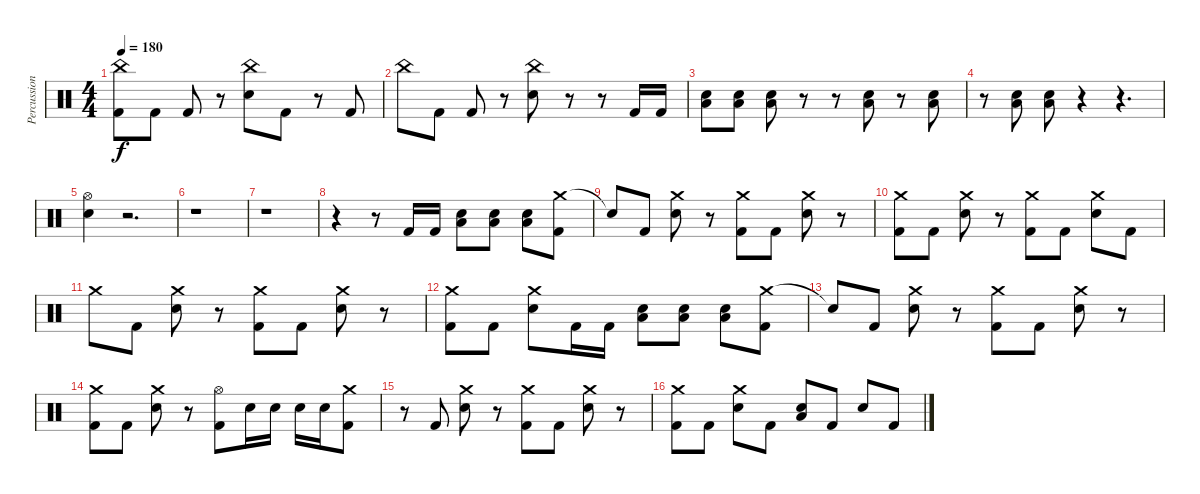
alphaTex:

\track ("Percussion" "Percussion") {instrument percussion}
\staff {score}
\articulation defaults
\ts (4 4)
\tempo 180
\clef neutral
\ks c
("China (hit)" "Kick (hit) 2").8{dy f} "Kick (hit) 2".8 "Kick (hit) 2".8 r.8 ("China (hit)" "Snare (hit) 2").8 "Kick (hit) 2".8 r.8 "Kick (hit) 2".8 |
"China (hit)".8 "Kick (hit) 2".8 "Kick (hit) 2".8 r.8 ("China (hit)" "Snare (hit) 2").8 r.8 r.8 "Kick (hit) 2".16 "Kick (hit) 2".16 |
("Low Floor Tom (hit)" "Snare (hit) 2").8 ("Low Floor Tom (hit)" "Snare (hit) 2").8 ("Low Floor Tom (hit)" "Snare (hit) 2").8 r.8 r.8 ("Low Floor Tom (hit)" "Snare (hit) 2").8 r.8 ("Low Floor Tom (hit)" "Snare (hit) 2").8 |
r.8 ("Low Floor Tom (hit)" "Snare (hit) 2").8 ("Low Floor Tom (hit)" "Snare (hit) 2").8 r.4 r.4{d} |
("Hi-Hat (open)" "Snare (hit) 2").4 r.2{d} |
r.1 |
r.1 |
r.4 r.8 "Kick (hit) 2".16 "Kick (hit) 2".16 ("Low Floor Tom (hit)" "Snare (hit) 2").8 ("Low Floor Tom (hit)" "Snare (hit) 2").8 ("Low Floor Tom (hit)" "Snare (hit) 2").8 ("Crash medium (hit)" "Kick (hit) 2").8 |
"Snare (hit)"{t}.8 "Kick (hit) 2".8 ("Crash medium (hit)" "Snare (hit) 2").8 r.8 ("Crash medium (hit)" "Kick (hit) 2").8 "Kick (hit) 2".8 ("Crash medium (hit)" "Snare (hit) 2").8 r.8 |
("Crash medium (hit)" "Kick (hit) 2").8 "Kick (hit) 2".8 ("Crash medium (hit)" "Snare (hit) 2").8 r.8 ("Crash medium (hit)" "Kick (hit) 2").8 "Kick (hit) 2".8 ("Crash medium (hit)" "Snare (hit) 2").8 "Kick (hit) 2".8 |
"Crash medium (hit)".8 "Kick (hit) 2".8 ("Crash medium (hit)" "Snare (hit) 2").8 r.8 ("Crash medium (hit)" "Kick (hit) 2").8 "Kick (hit) 2".8 ("Crash medium (hit)" "Snare (hit) 2").8 r.8 |
("Crash medium (hit)" "Kick (hit) 2").8 "Kick (hit) 2".8 ("Crash medium (hit)" "Snare (hit) 2").8 "Kick (hit) 2".16 "Kick (hit) 2".16 ("Low Floor Tom (hit)" "Snare (hit) 2").8 ("Low Floor Tom (hit)" "Snare (hit) 2").8 ("Low Floor Tom (hit)" "Snare (hit) 2").8 ("Crash medium (hit)" "Kick (hit) 2").8 |
"Snare (hit)"{t}.8 "Kick (hit) 2".8 ("Crash medium (hit)" "Snare (hit) 2").8 r.8 ("Crash medium (hit)" "Kick (hit) 2").8 "Kick (hit) 2".8 ("Crash medium (hit)" "Snare (hit) 2").8 r.8 |
("Crash medium (hit)" "Kick (hit) 2").8 "Kick (hit) 2".8 ("Crash medium (hit)" "Snare (hit) 2").8 r.8 ("Hi-Hat (open)" "Kick (hit) 2").8 "Snare (hit) 2".16 "Snare (hit) 2".16 "Snare (hit) 2".16 "Snare (hit) 2".16 ("Crash medium (hit)" "Kick (hit) 2").8 |
r.8 "Kick (hit) 2".8 ("Crash medium (hit)" "Snare (hit) 2").8 r.8 ("Crash medium (hit)" "Kick (hit) 2").8 "Kick (hit) 2".8 ("Crash medium (hit)" "Snare (hit) 2").8 r.8 |
("Crash medium (hit)" "Kick (hit) 2").8 "Kick (hit) 2".8 ("Crash medium (hit)" "Snare (hit) 2").8 "Kick (hit) 2".8 ("Low Floor Tom (hit)" "Snare (hit) 2").8 "Kick (hit) 2".8 "Snare (hit) 2".8 "Kick (hit) 2".8
